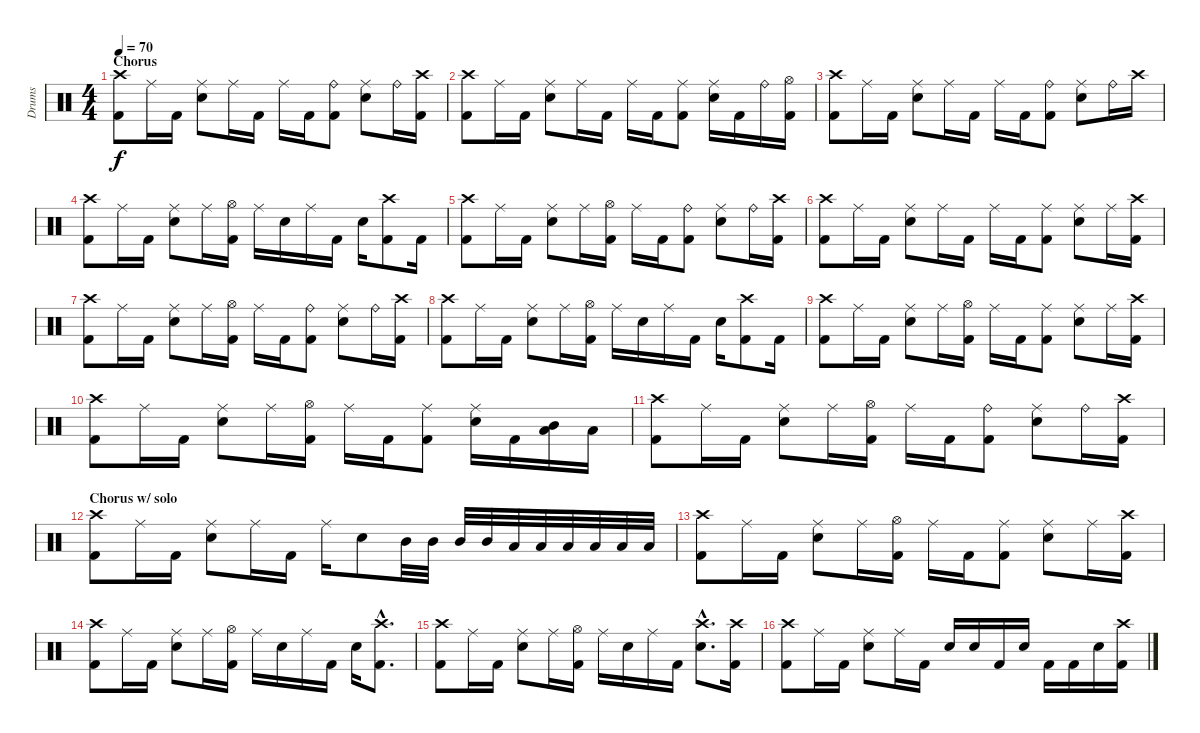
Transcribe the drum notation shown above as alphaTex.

\track ("Drums" "Drums") {instrument percussion}
\staff {score}
\articulation defaults
\ts (4 4)
\section ("" "Chorus")
\tempo 70
\clef neutral
\ks c
("Crash high (hit)" "Kick (hit) 2").8{dy f} "Ride (middle)".16 "Kick (hit) 2".16 ("Ride (middle)" "Electric Snare (hit)").8 "Ride (middle)".16 "Kick (hit) 2".16 "Ride (middle)".16 "Kick (hit) 2".16 ("Ride (bell)" "Kick (hit) 2").8 ("Ride (middle)" "Electric Snare (hit)").8 "Ride (bell)".16 ("Crash high (hit)" "Kick (hit) 2").16 |
("Crash high (hit)" "Kick (hit) 2").8 "Ride (middle)".16 "Kick (hit) 2".16 ("Ride (middle)" "Electric Snare (hit)").8 "Ride (middle)".16 "Kick (hit) 2".16 "Ride (middle)".16 "Kick (hit) 2".16 ("Ride (middle)" "Kick (hit) 2").8 ("Ride (middle)" "Electric Snare (hit)").16 "Kick (hit) 2".16 "Ride (bell)".16 ("Hi-Hat (open)" "Kick (hit) 2").16 |
("Crash high (hit)" "Kick (hit) 2").8 "Ride (middle)".16 "Kick (hit) 2".16 ("Ride (middle)" "Electric Snare (hit)").8 "Ride (middle)".16 "Kick (hit) 2".16 "Ride (middle)".16 "Kick (hit) 2".16 ("Ride (bell)" "Kick (hit) 2").8 ("Ride (middle)" "Electric Snare (hit)").8 "Ride (bell)".16 "Crash high (hit)".16 |
("Crash high (hit)" "Kick (hit) 2").8 "Ride (middle)".16 "Kick (hit) 2".16 ("Ride (middle)" "Electric Snare (hit)").8 "Ride (middle)".16 ("Hi-Hat (open)" "Kick (hit) 2").16 "Ride (middle)".16 "Electric Snare (hit)".16 "Ride (middle)".16 "Kick (hit) 2".16 "Electric Snare (hit)".16 ("Crash high (hit)" "Kick (hit) 2").8 "Kick (hit) 2".16 |
("Crash high (hit)" "Kick (hit) 2").8 "Ride (middle)".16 "Kick (hit) 2".16 ("Ride (middle)" "Electric Snare (hit)").8 "Ride (middle)".16 ("Hi-Hat (open)" "Kick (hit) 2").16 "Ride (middle)".16 "Kick (hit) 2".16 ("Ride (bell)" "Kick (hit) 2").8 ("Ride (middle)" "Electric Snare (hit)").8 "Ride (bell)".16 ("Crash high (hit)" "Kick (hit) 2").16 |
("Crash high (hit)" "Kick (hit) 2").8 "Ride (middle)".16 "Kick (hit) 2".16 ("Ride (middle)" "Electric Snare (hit)").8 "Ride (middle)".16 "Kick (hit) 2".16 "Ride (middle)".16 "Kick (hit) 2".16 ("Ride (middle)" "Kick (hit) 2").8 ("Ride (middle)" "Electric Snare (hit)").8 "Ride (middle)".16 ("Crash high (hit)" "Kick (hit) 2").16 |
("Crash high (hit)" "Kick (hit) 2").8 "Ride (middle)".16 "Kick (hit) 2".16 ("Ride (middle)" "Electric Snare (hit)").8 "Ride (middle)".16 ("Hi-Hat (open)" "Kick (hit) 2").16 "Ride (middle)".16 "Kick (hit) 2".16 ("Ride (bell)" "Kick (hit) 2").8 ("Ride (middle)" "Electric Snare (hit)").8 "Ride (bell)".16 ("Crash high (hit)" "Kick (hit) 2").16 |
("Crash high (hit)" "Kick (hit) 2").8 "Ride (middle)".16 "Kick (hit) 2".16 ("Ride (middle)" "Electric Snare (hit)").8 "Ride (middle)".16 ("Hi-Hat (open)" "Kick (hit) 2").16 "Ride (middle)".16 "Electric Snare (hit)".16 "Ride (middle)".16 "Kick (hit) 2".16 "Electric Snare (hit)".16 ("Crash high (hit)" "Kick (hit) 2").8 "Kick (hit) 2".16 |
("Crash high (hit)" "Kick (hit) 2").8 "Ride (middle)".16 "Kick (hit) 2".16 ("Ride (middle)" "Electric Snare (hit)").8 "Ride (middle)".16 ("Hi-Hat (open)" "Kick (hit) 2").16 "Ride (middle)".16 "Kick (hit) 2".16 ("Ride (middle)" "Kick (hit) 2").8 ("Ride (middle)" "Electric Snare (hit)").8 "Ride (middle)".16 ("Crash high (hit)" "Kick (hit) 2").16 |
("Crash high (hit)" "Kick (hit) 2").8 "Ride (middle)".16 "Kick (hit) 2".16 ("Ride (middle)" "Electric Snare (hit)").8 "Ride (middle)".16 ("Hi-Hat (open)" "Kick (hit) 2").16 "Ride (middle)".16 "Kick (hit) 2".16 ("Ride (middle)" "Kick (hit) 2").8 ("Ride (middle)" "Electric Snare (hit)").16 "Kick (hit) 2".16 ("Low Tom (hit)" "Mid Tom (hit)").16 "Low Tom (hit)".16 |
("Crash high (hit)" "Kick (hit) 2").8 "Ride (middle)".16 "Kick (hit) 2".16 ("Ride (middle)" "Electric Snare (hit)").8 "Ride (middle)".16 ("Hi-Hat (open)" "Kick (hit) 2").16 "Ride (middle)".16 "Kick (hit) 2".16 ("Ride (bell)" "Kick (hit) 2").8 ("Ride (middle)" "Electric Snare (hit)").8 "Ride (bell)".16 ("Crash high (hit)" "Kick (hit) 2").16 |
\section ("" "Chorus w/ solo")
("Crash high (hit)" "Kick (hit) 2").8 "Ride (middle)".16 "Kick (hit) 2".16 ("Ride (middle)" "Electric Snare (hit)").8 "Ride (middle)".16 "Kick (hit) 2".16 "Ride (middle)".16 "Electric Snare (hit)".8 "Mid Tom (hit)".32 "Mid Tom (hit)".32 "Mid Tom (hit)".32 "Mid Tom (hit)".32 "Low Tom (hit)".32 "Low Tom (hit)".32 "Low Tom (hit)".32 "Low Tom (hit)".32 "Low Floor Tom (hit)".32 "Low Floor Tom (hit)".32 |
("Crash high (hit)" "Kick (hit) 2").8 "Ride (middle)".16 "Kick (hit) 2".16 ("Ride (middle)" "Electric Snare (hit)").8 "Ride (middle)".16 ("Hi-Hat (open)" "Kick (hit) 2").16 "Ride (middle)".16 "Kick (hit) 2".16 ("Ride (middle)" "Kick (hit) 2").8 ("Ride (middle)" "Electric Snare (hit)").8 "Ride (middle)".16 ("Crash high (hit)" "Kick (hit) 2").16 |
("Crash high (hit)" "Kick (hit) 2").8 "Ride (middle)".16 "Kick (hit) 2".16 ("Ride (middle)" "Electric Snare (hit)").8 "Ride (middle)".16 ("Hi-Hat (open)" "Kick (hit) 2").16 "Ride (middle)".16 "Electric Snare (hit)".16 "Ride (middle)".16 "Kick (hit) 2".16 "Electric Snare (hit)".16 ("Crash high (hit)"{hac} "Kick (hit) 2"{hac}).8{d} |
("Crash high (hit)" "Kick (hit) 2").8 "Ride (middle)".16 "Kick (hit) 2".16 ("Ride (middle)" "Electric Snare (hit)").8 "Ride (middle)".16 ("Hi-Hat (open)" "Kick (hit) 2").16 "Ride (middle)".16 "Electric Snare (hit)".16 "Ride (middle)".16 "Kick (hit) 2".16 ("Crash high (hit)"{hac} "Electric Snare (hit)"{hac}).8{d} ("Crash high (hit)" "Kick (hit) 2").16 |
("Crash high (hit)" "Kick (hit) 2").8 "Ride (middle)".16 "Kick (hit) 2".16 ("Ride (middle)" "Electric Snare (hit)").8 "Ride (middle)".16 "Kick (hit) 2".16 "Electric Snare (hit)".16 "Electric Snare (hit)".16 "Kick (hit) 2".16 "Electric Snare (hit)".16 "Kick (hit) 2".16 "Kick (hit) 2".16 "Electric Snare (hit)".16 ("Crash high (hit)" "Kick (hit) 2").16
